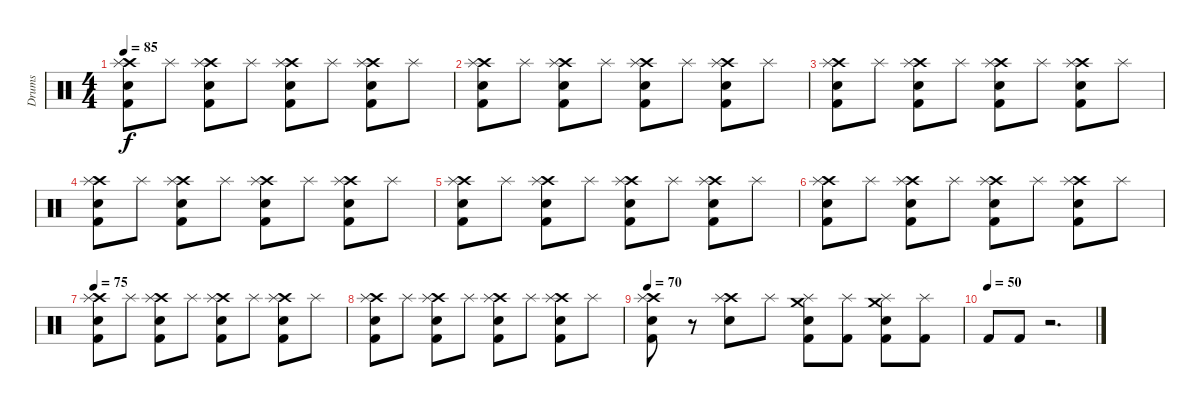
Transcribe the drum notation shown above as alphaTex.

\track ("Drums" "Drums") {instrument percussion}
\staff {score}
\articulation defaults
\ts (4 4)
\tempo 85
\clef neutral
\ks c
("Crash high (hit)" "Splash (hit)" "Snare (hit) 2" "Kick (hit) 2").8{dy f} "Splash (hit)".8 ("Crash high (hit)" "Splash (hit)" "Snare (hit) 2" "Kick (hit) 2").8 "Splash (hit)".8 ("Crash high (hit)" "Splash (hit)" "Snare (hit) 2" "Kick (hit) 2").8 "Splash (hit)".8 ("Crash high (hit)" "Splash (hit)" "Snare (hit) 2" "Kick (hit) 2").8 "Splash (hit)".8 |
("Crash high (hit)" "Splash (hit)" "Snare (hit) 2" "Kick (hit) 2").8 "Splash (hit)".8 ("Crash high (hit)" "Splash (hit)" "Snare (hit) 2" "Kick (hit) 2").8 "Splash (hit)".8 ("Crash high (hit)" "Splash (hit)" "Snare (hit) 2" "Kick (hit) 2").8 "Splash (hit)".8 ("Crash high (hit)" "Splash (hit)" "Snare (hit) 2" "Kick (hit) 2").8 "Splash (hit)".8 |
("Crash high (hit)" "Splash (hit)" "Snare (hit) 2" "Kick (hit) 2").8 "Splash (hit)".8 ("Crash high (hit)" "Splash (hit)" "Snare (hit) 2" "Kick (hit) 2").8 "Splash (hit)".8 ("Crash high (hit)" "Splash (hit)" "Snare (hit) 2" "Kick (hit) 2").8 "Splash (hit)".8 ("Crash high (hit)" "Splash (hit)" "Snare (hit) 2" "Kick (hit) 2").8 "Splash (hit)".8 |
("Crash high (hit)" "Splash (hit)" "Snare (hit) 2" "Kick (hit) 2").8 "Splash (hit)".8 ("Crash high (hit)" "Splash (hit)" "Snare (hit) 2" "Kick (hit) 2").8 "Splash (hit)".8 ("Crash high (hit)" "Splash (hit)" "Snare (hit) 2" "Kick (hit) 2").8 "Splash (hit)".8 ("Crash high (hit)" "Splash (hit)" "Snare (hit) 2" "Kick (hit) 2").8 "Splash (hit)".8 |
("Crash high (hit)" "Splash (hit)" "Snare (hit) 2" "Kick (hit) 2").8 "Splash (hit)".8 ("Crash high (hit)" "Splash (hit)" "Snare (hit) 2" "Kick (hit) 2").8 "Splash (hit)".8 ("Crash high (hit)" "Splash (hit)" "Snare (hit) 2" "Kick (hit) 2").8 "Splash (hit)".8 ("Crash high (hit)" "Splash (hit)" "Snare (hit) 2" "Kick (hit) 2").8 "Splash (hit)".8 |
("Crash high (hit)" "Splash (hit)" "Snare (hit) 2" "Kick (hit) 2").8 "Splash (hit)".8 ("Crash high (hit)" "Splash (hit)" "Snare (hit) 2" "Kick (hit) 2").8 "Splash (hit)".8 ("Crash high (hit)" "Splash (hit)" "Snare (hit) 2" "Kick (hit) 2").8 "Splash (hit)".8 ("Crash high (hit)" "Splash (hit)" "Snare (hit) 2" "Kick (hit) 2").8 "Splash (hit)".8 |
\tempo 75
("Crash high (hit)" "Splash (hit)" "Snare (hit) 2" "Kick (hit) 2").8 "Splash (hit)".8 ("Crash high (hit)" "Splash (hit)" "Snare (hit) 2" "Kick (hit) 2").8 "Splash (hit)".8 ("Crash high (hit)" "Splash (hit)" "Snare (hit) 2" "Kick (hit) 2").8 "Splash (hit)".8 ("Crash high (hit)" "Splash (hit)" "Snare (hit) 2" "Kick (hit) 2").8 "Splash (hit)".8 |
("Crash high (hit)" "Splash (hit)" "Snare (hit) 2" "Kick (hit) 2").8 "Splash (hit)".8 ("Crash high (hit)" "Splash (hit)" "Snare (hit) 2" "Kick (hit) 2").8 "Splash (hit)".8 ("Crash high (hit)" "Splash (hit)" "Snare (hit) 2" "Kick (hit) 2").8 "Splash (hit)".8 ("Crash high (hit)" "Splash (hit)" "Snare (hit) 2" "Kick (hit) 2").8 "Splash (hit)".8 |
\tempo 70
("Crash high (hit)" "Splash (hit)" "Snare (hit) 2" "Kick (hit) 2").8 r.8 ("Crash high (hit)" "Splash (hit)" "Snare (hit) 2").8 "Splash (hit)".8 ("Crash medium (hit)" "Splash (hit)" "Snare (hit) 2" "Kick (hit) 2").8 ("Splash (hit)" "Kick (hit) 2").8 ("Crash medium (hit)" "Splash (hit)" "Snare (hit) 2" "Kick (hit) 2").8 ("Splash (hit)" "Kick (hit) 2").8 |
\tempo (50)
"Kick (hit) 2".8 "Kick (hit) 2".8 r.2{d}
